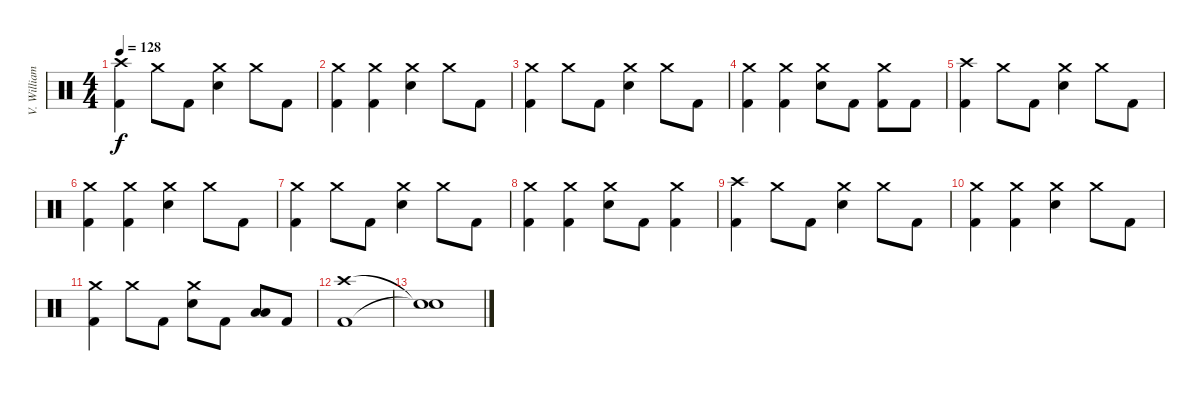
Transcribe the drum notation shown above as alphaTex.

\track ("V. Williams" "V. William") {instrument percussion}
\staff {score}
\articulation defaults
\ts (4 4)
\tempo 128
\clef neutral
\ks c
("Crash high (hit)" "Kick (hit) 2").4{dy f} "Crash medium (hit)".8 "Kick (hit) 2".8 ("Crash medium (hit)" "Electric Snare (hit)").4 "Crash medium (hit)".8 "Kick (hit) 2".8 |
("Crash medium (hit)" "Kick (hit) 2").4 ("Crash medium (hit)" "Kick (hit) 2").4 ("Crash medium (hit)" "Electric Snare (hit)").4 "Crash medium (hit)".8 "Kick (hit) 2".8 |
("Crash medium (hit)" "Kick (hit) 2").4 "Crash medium (hit)".8 "Kick (hit) 2".8 ("Crash medium (hit)" "Electric Snare (hit)").4 "Crash medium (hit)".8 "Kick (hit) 2".8 |
("Crash medium (hit)" "Kick (hit) 2").4 ("Crash medium (hit)" "Kick (hit) 2").4 ("Crash medium (hit)" "Electric Snare (hit)").8 "Kick (hit) 2".8 ("Crash medium (hit)" "Kick (hit) 2").8 "Kick (hit) 2".8 |
("Crash high (hit)" "Kick (hit) 2").4 "Crash medium (hit)".8 "Kick (hit) 2".8 ("Crash medium (hit)" "Electric Snare (hit)").4 "Crash medium (hit)".8 "Kick (hit) 2".8 |
("Crash medium (hit)" "Kick (hit) 2").4 ("Crash medium (hit)" "Kick (hit) 2").4 ("Crash medium (hit)" "Electric Snare (hit)").4 "Crash medium (hit)".8 "Kick (hit) 2".8 |
("Crash medium (hit)" "Kick (hit) 2").4 "Crash medium (hit)".8 "Kick (hit) 2".8 ("Crash medium (hit)" "Electric Snare (hit)").4 "Crash medium (hit)".8 "Kick (hit) 2".8 |
("Crash medium (hit)" "Kick (hit) 2").4 ("Crash medium (hit)" "Kick (hit) 2").4 ("Crash medium (hit)" "Electric Snare (hit)").8 "Kick (hit) 2".8 ("Crash medium (hit)" "Kick (hit) 2").4 |
("Crash high (hit)" "Kick (hit) 2").4 "Crash medium (hit)".8 "Kick (hit) 2".8 ("Crash medium (hit)" "Electric Snare (hit)").4 "Crash medium (hit)".8 "Kick (hit) 2".8 |
("Crash medium (hit)" "Kick (hit) 2").4 ("Crash medium (hit)" "Kick (hit) 2").4 ("Crash medium (hit)" "Electric Snare (hit)").4 "Crash medium (hit)".8 "Kick (hit) 2".8 |
("Crash medium (hit)" "Kick (hit) 2").4 "Crash medium (hit)".8 "Kick (hit) 2".8 ("Crash medium (hit)" "Electric Snare (hit)").8 "Kick (hit) 2".8 ("Low Floor Tom (hit)" "Low Tom (hit)").8 "Kick (hit) 2".8 |
\section ("" "")
("Crash high (hit)" "Kick (hit) 2").1 |
("Snare (hit)"{t} "Snare (hit)"{t}).1
